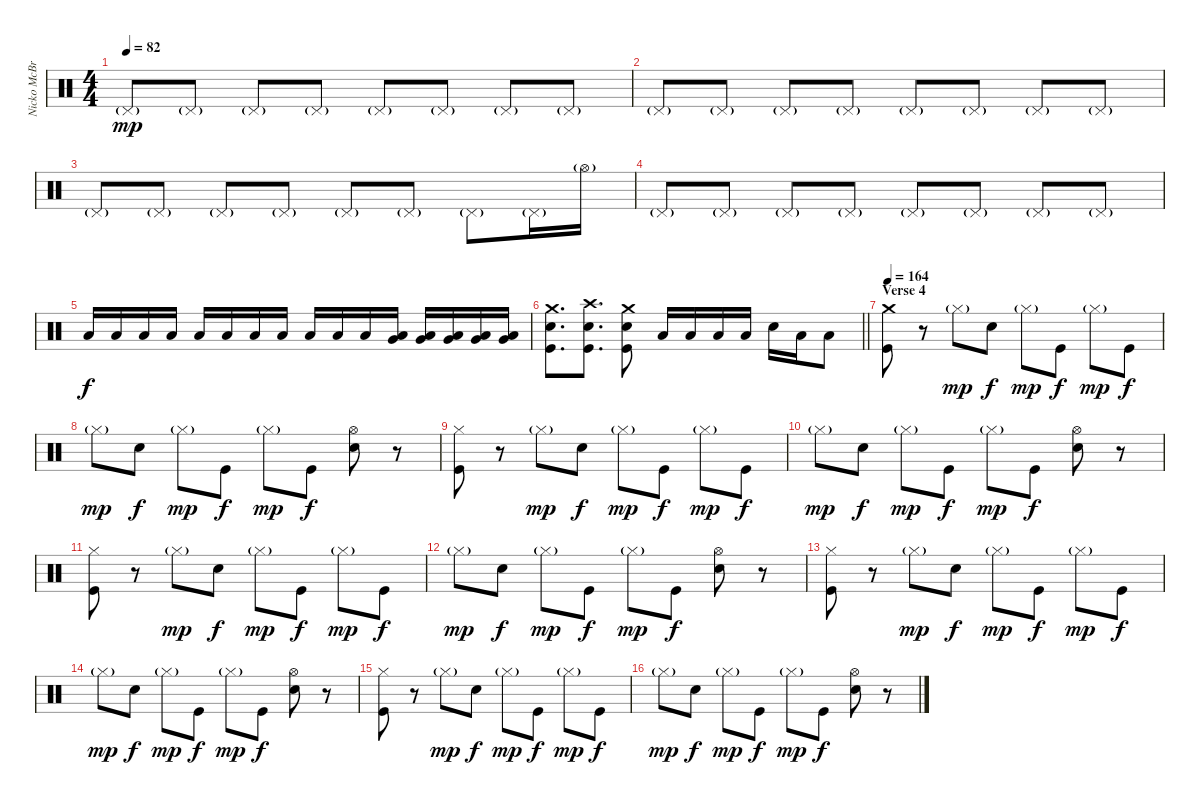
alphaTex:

\track ("Nicko McBrain" "Nicko McBr") {instrument percussion}
\staff {score}
\articulation defaults
\ts (4 4)
\tempo 82
\clef neutral
\ks c "Pedal Hi-Hat (hit)"{g}.8{dy mp} "Pedal Hi-Hat (hit)"{g}.8 "Pedal Hi-Hat (hit)"{g}.8 "Pedal Hi-Hat (hit)"{g}.8 "Pedal Hi-Hat (hit)"{g}.8 "Pedal Hi-Hat (hit)"{g}.8 "Pedal Hi-Hat (hit)"{g}.8 "Pedal Hi-Hat (hit)"{g}.8
|
"Pedal Hi-Hat (hit)"{g}.8 "Pedal Hi-Hat (hit)"{g}.8 "Pedal Hi-Hat (hit)"{g}.8 "Pedal Hi-Hat (hit)"{g}.8 "Pedal Hi-Hat (hit)"{g}.8 "Pedal Hi-Hat (hit)"{g}.8 "Pedal Hi-Hat (hit)"{g}.8 "Pedal Hi-Hat (hit)"{g}.8 |
"Pedal Hi-Hat (hit)"{g}.8 "Pedal Hi-Hat (hit)"{g}.8 "Pedal Hi-Hat (hit)"{g}.8 "Pedal Hi-Hat (hit)"{g}.8 "Pedal Hi-Hat (hit)"{g}.8 "Pedal Hi-Hat (hit)"{g}.8 "Pedal Hi-Hat (hit)"{g}.8 "Pedal Hi-Hat (hit)"{g}.16 "Hi-Hat (open)"{g}.16 |
"Pedal Hi-Hat (hit)"{g}.8 "Pedal Hi-Hat (hit)"{g}.8 "Pedal Hi-Hat (hit)"{g}.8 "Pedal Hi-Hat (hit)"{g}.8 "Pedal Hi-Hat (hit)"{g}.8 "Pedal Hi-Hat (hit)"{g}.8 "Pedal Hi-Hat (hit)"{g}.8 "Pedal Hi-Hat (hit)"{g}.8 |
"Low Tom (hit)".16{dy f} "Low Tom (hit)".16 "Low Tom (hit)".16 "Low Tom (hit)".16 "Low Tom (hit)".16 "Low Tom (hit)".16 "Low Tom (hit)".16 "Low Tom (hit)".16 "Low Tom (hit)".16 "Low Tom (hit)".16 "Low Tom (hit)".16 ("Very Low Tom (hit)" "Low Tom (hit)").16 ("Very Low Tom (hit)" "Low Tom (hit)").16 ("Very Low Tom (hit)" "Low Tom (hit)").16 ("Very Low Tom (hit)" "Low Tom (hit)").16 ("Very Low Tom (hit)" "Low Tom (hit)").16 |
\barLineRight lightlight
("Crash medium (hit)" "Electric Snare (hit)" "Kick (hit)").8{d} ("Crash high (hit)" "Electric Snare (hit)" "Kick (hit)").8{d} ("Crash medium (hit)" "Electric Snare (hit)" "Kick (hit)").8 "Low Tom (hit)".16 "Low Tom (hit)".16 "Low Tom (hit)".16 "Low Tom (hit)".16 "Electric Snare (hit)".16 "Low Tom (hit)".16 "Low Tom (hit)".8 |
\section ("" "Verse 4")
\tempo 164
("Crash medium (hit)" "Kick (hit)").8 r.8 "Hi-Hat (closed)"{g}.8{dy mp} "Electric Snare (hit)".8{dy f} "Hi-Hat (closed)"{g}.8{dy mp} "Kick (hit)".8{dy f} "Hi-Hat (closed)"{g}.8{dy mp} "Kick (hit)".8{dy f} |
"Hi-Hat (closed)"{g}.8{dy mp} "Electric Snare (hit)".8{dy f} "Hi-Hat (closed)"{g}.8{dy mp} "Kick (hit)".8{dy f} "Hi-Hat (closed)"{g}.8{dy mp} "Kick (hit)".8{dy f} ("Hi-Hat (open)" "Electric Snare (hit)").8 r.8 |
("Hi-Hat (closed)" "Kick (hit)").8 r.8 "Hi-Hat (closed)"{g}.8{dy mp} "Electric Snare (hit)".8{dy f} "Hi-Hat (closed)"{g}.8{dy mp} "Kick (hit)".8{dy f} "Hi-Hat (closed)"{g}.8{dy mp} "Kick (hit)".8{dy f} |
"Hi-Hat (closed)"{g}.8{dy mp} "Electric Snare (hit)".8{dy f} "Hi-Hat (closed)"{g}.8{dy mp} "Kick (hit)".8{dy f} "Hi-Hat (closed)"{g}.8{dy mp} "Kick (hit)".8{dy f} ("Hi-Hat (open)" "Electric Snare (hit)").8 r.8 |
("Hi-Hat (closed)" "Kick (hit)").8 r.8 "Hi-Hat (closed)"{g}.8{dy mp} "Electric Snare (hit)".8{dy f} "Hi-Hat (closed)"{g}.8{dy mp} "Kick (hit)".8{dy f} "Hi-Hat (closed)"{g}.8{dy mp} "Kick (hit)".8{dy f} |
"Hi-Hat (closed)"{g}.8{dy mp} "Electric Snare (hit)".8{dy f} "Hi-Hat (closed)"{g}.8{dy mp} "Kick (hit)".8{dy f} "Hi-Hat (closed)"{g}.8{dy mp} "Kick (hit)".8{dy f} ("Hi-Hat (open)" "Electric Snare (hit)").8 r.8 |
("Hi-Hat (closed)" "Kick (hit)").8 r.8 "Hi-Hat (closed)"{g}.8{dy mp} "Electric Snare (hit)".8{dy f} "Hi-Hat (closed)"{g}.8{dy mp} "Kick (hit)".8{dy f} "Hi-Hat (closed)"{g}.8{dy mp} "Kick (hit)".8{dy f} |
"Hi-Hat (closed)"{g}.8{dy mp} "Electric Snare (hit)".8{dy f} "Hi-Hat (closed)"{g}.8{dy mp} "Kick (hit)".8{dy f} "Hi-Hat (closed)"{g}.8{dy mp} "Kick (hit)".8{dy f} ("Hi-Hat (open)" "Electric Snare (hit)").8 r.8 |
("Hi-Hat (closed)" "Kick (hit)").8 r.8 "Hi-Hat (closed)"{g}.8{dy mp} "Electric Snare (hit)".8{dy f} "Hi-Hat (closed)"{g}.8{dy mp} "Kick (hit)".8{dy f} "Hi-Hat (closed)"{g}.8{dy mp} "Kick (hit)".8{dy f} |
"Hi-Hat (closed)"{g}.8{dy mp} "Electric Snare (hit)".8{dy f} "Hi-Hat (closed)"{g}.8{dy mp} "Kick (hit)".8{dy f} "Hi-Hat (closed)"{g}.8{dy mp} "Kick (hit)".8{dy f} ("Hi-Hat (open)" "Electric Snare (hit)").8 r.8
